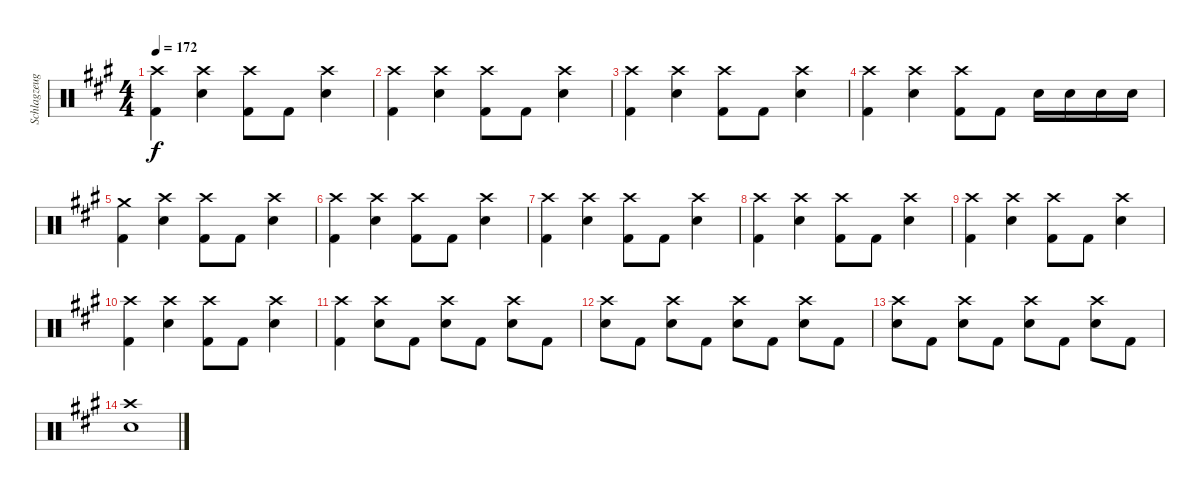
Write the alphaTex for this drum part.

\track ("Schlagzeug" "Schlagzeug") {instrument percussion}
\staff {score}
\articulation defaults
\ts (4 4)
\tempo 172
\clef neutral
\ks a
("Crash high (hit)" "Kick (hit) 2").4{dy f} ("Crash high (hit)" "Snare (hit) 2").4 ("Crash high (hit)" "Kick (hit) 2").8 "Kick (hit) 2".8 ("Crash high (hit)" "Snare (hit) 2").4 |
("Crash high (hit)" "Kick (hit) 2").4 ("Crash high (hit)" "Snare (hit) 2").4 ("Crash high (hit)" "Kick (hit) 2").8 "Kick (hit) 2".8 ("Crash high (hit)" "Snare (hit) 2").4 |
("Crash high (hit)" "Kick (hit) 2").4 ("Crash high (hit)" "Snare (hit) 2").4 ("Crash high (hit)" "Kick (hit) 2").8 "Kick (hit) 2".8 ("Crash high (hit)" "Snare (hit) 2").4 |
("Crash high (hit)" "Kick (hit) 2").4 ("Crash high (hit)" "Snare (hit) 2").4 ("Crash high (hit)" "Kick (hit) 2").8 "Kick (hit) 2".8 "Snare (hit) 2".16 "Snare (hit) 2".16 "Snare (hit) 2".16 "Snare (hit) 2".16 |
("Crash medium (hit)" "Kick (hit) 2").4 ("Crash high (hit)" "Snare (hit) 2").4 ("Crash high (hit)" "Kick (hit) 2").8 "Kick (hit) 2".8 ("Crash high (hit)" "Snare (hit) 2").4 |
("Crash high (hit)" "Kick (hit) 2").4 ("Crash high (hit)" "Snare (hit) 2").4 ("Crash high (hit)" "Kick (hit) 2").8 "Kick (hit) 2".8 ("Crash high (hit)" "Snare (hit) 2").4 |
("Crash high (hit)" "Kick (hit) 2").4 ("Crash high (hit)" "Snare (hit) 2").4 ("Crash high (hit)" "Kick (hit) 2").8 "Kick (hit) 2".8 ("Crash high (hit)" "Snare (hit) 2").4 |
("Crash high (hit)" "Kick (hit) 2").4 ("Crash high (hit)" "Snare (hit) 2").4 ("Crash high (hit)" "Kick (hit) 2").8 "Kick (hit) 2".8 ("Crash high (hit)" "Snare (hit) 2").4 |
("Crash high (hit)" "Kick (hit) 2").4 ("Crash high (hit)" "Snare (hit) 2").4 ("Crash high (hit)" "Kick (hit) 2").8 "Kick (hit) 2".8 ("Crash high (hit)" "Snare (hit) 2").4 |
("Crash high (hit)" "Kick (hit) 2").4 ("Crash high (hit)" "Snare (hit) 2").4 ("Crash high (hit)" "Kick (hit) 2").8 "Kick (hit) 2".8 ("Crash high (hit)" "Snare (hit) 2").4 |
("Crash high (hit)" "Kick (hit) 2").4 ("Crash high (hit)" "Snare (hit) 2").8 "Kick (hit) 2".8 ("Crash high (hit)" "Snare (hit) 2").8 "Kick (hit) 2".8 ("Crash high (hit)" "Snare (hit) 2").8 "Kick (hit) 2".8 |
("Crash high (hit)" "Snare (hit) 2").8 "Kick (hit) 2".8 ("Crash high (hit)" "Snare (hit) 2").8 "Kick (hit) 2".8 ("Crash high (hit)" "Snare (hit) 2").8 "Kick (hit) 2".8 ("Crash high (hit)" "Snare (hit) 2").8 "Kick (hit) 2".8 |
("Crash high (hit)" "Snare (hit) 2").8 "Kick (hit) 2".8 ("Crash high (hit)" "Snare (hit) 2").8 "Kick (hit) 2".8 ("Crash high (hit)" "Snare (hit) 2").8 "Kick (hit) 2".8 ("Crash high (hit)" "Snare (hit) 2").8 "Kick (hit) 2".8 |
("Crash high (hit)" "Snare (hit) 2").1
